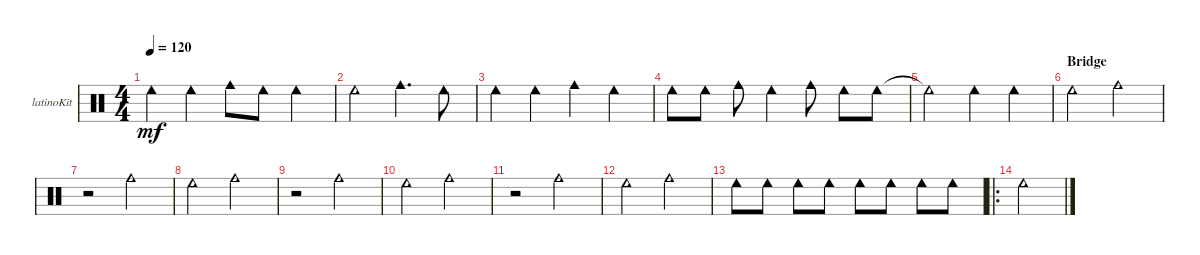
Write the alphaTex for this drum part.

\defaultSystemsLayout 4
\bracketExtendMode groupsimilarinstruments
\firstSystemTrackNameOrientation horizontal
\otherSystemsTrackNameOrientation horizontal
\track ("Kit-Latino" "latinoKit") {instrument percussion}
\staff {score}
\articulation defaults
\ts (4 4)
\tempo 120
\clef neutral
\scale
0.333333
\ks c "Cowbell low (hit)".4{dy mf} "Cowbell low (hit)".4 "Cowbell medium (hit)".8 "Cowbell low (hit)".8 "Cowbell low (hit)".4
|
\scale
0.333333 "Cowbell low (hit)".2 "Cowbell medium (hit)".4{d} "Cowbell low (hit)".8 |
\scale
0.333333 "Cowbell low (hit)".4 "Cowbell low (hit)".4 "Cowbell medium (hit)".4 "Cowbell low (hit)".4 |
\scale
0.333333 "Cowbell low (hit)".8 "Cowbell low (hit)".8 "Cowbell medium (hit)".8 "Cowbell low (hit)".4 "Cowbell medium (hit)".8 "Cowbell low (hit)".8 "Cowbell low (hit)".8 |
\scale
0.333333 "Cowbell low (hit)"{t}.2 "Cowbell low (hit)".4 "Cowbell low (hit)".4 |
\section ("" "Bridge")
\scale
0.333333 "Cowbell low (hit)".2 "Cowbell medium (hit)".2 |
\scale
0.333333 r.2 "Cowbell medium (hit)".2 |
\scale
0.333333 "Cowbell low (hit)".2 "Cowbell medium (hit)".2 |
\scale
0.333333 r.2 "Cowbell medium (hit)".2 |
\scale
0.333333 "Cowbell low (hit)".2 "Cowbell medium (hit)".2 |
\scale
0.333333 r.2 "Cowbell medium (hit)".2 |
\scale
0.311475 "Cowbell low (hit)".2 "Cowbell medium (hit)".2 |
\scale
0.311475 "Cowbell low (hit)".8 "Cowbell low (hit)".8 "Cowbell low (hit)".8 "Cowbell low (hit)".8 "Cowbell low (hit)".8 "Cowbell low (hit)".8 "Cowbell low (hit)".8 "Cowbell low (hit)".8 |
\ro
\scale
0.377049 "Cowbell low (hit)".2 |
\scale
0.322034 |
\scale
0.322034
